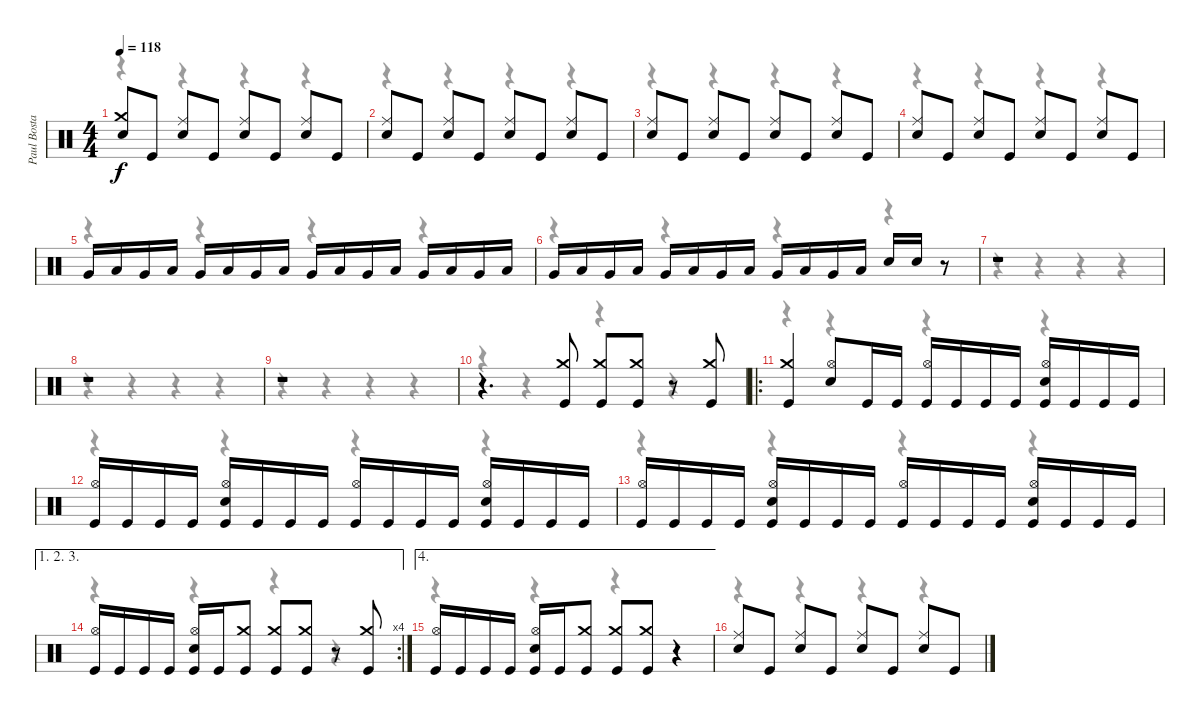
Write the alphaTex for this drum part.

\track ("Paul Bostaph" "Paul Bosta") {instrument percussion}
\staff {score}
\articulation defaults
\voice
\ts (4 4)
\tempo 118
\clef neutral
\ks c
("Crash medium (hit)" "Snare (hit) 2").8{dy f} "Kick (hit)".8 ("Ride (middle)" "Snare (hit) 2").8 "Kick (hit)".8 ("Ride (middle)" "Snare (hit) 2").8 "Kick (hit)".8 ("Ride (middle)" "Snare (hit) 2").8 "Kick (hit)".8 |
("Ride (middle)" "Snare (hit) 2").8 "Kick (hit)".8 ("Ride (middle)" "Snare (hit) 2").8 "Kick (hit)".8 ("Ride (middle)" "Snare (hit) 2").8 "Kick (hit)".8 ("Ride (middle)" "Snare (hit) 2").8 "Kick (hit)".8 |
("Ride (middle)" "Snare (hit) 2").8 "Kick (hit)".8 ("Ride (middle)" "Snare (hit) 2").8 "Kick (hit)".8 ("Ride (middle)" "Snare (hit) 2").8 "Kick (hit)".8 ("Ride (middle)" "Snare (hit) 2").8 "Kick (hit)".8 |
("Ride (middle)" "Snare (hit) 2").8 "Kick (hit)".8 ("Ride (middle)" "Snare (hit) 2").8 "Kick (hit)".8 ("Ride (middle)" "Snare (hit) 2").8 "Kick (hit)".8 ("Ride (middle)" "Snare (hit) 2").8 "Kick (hit)".8 |
"Very Low Tom (hit)".16 "Low Floor Tom (hit)".16 "Very Low Tom (hit)".16 "Low Floor Tom (hit)".16 "Very Low Tom (hit)".16 "Low Floor Tom (hit)".16 "Very Low Tom (hit)".16 "Low Floor Tom (hit)".16 "Very Low Tom (hit)".16 "Low Floor Tom (hit)".16 "Very Low Tom (hit)".16 "Low Floor Tom (hit)".16 "Very Low Tom (hit)".16 "Low Floor Tom (hit)".16 "Very Low Tom (hit)".16 "Low Floor Tom (hit)".16 |
"Very Low Tom (hit)".16 "Low Floor Tom (hit)".16 "Very Low Tom (hit)".16 "Low Floor Tom (hit)".16 "Very Low Tom (hit)".16 "Low Floor Tom (hit)".16 "Very Low Tom (hit)".16 "Low Floor Tom (hit)".16 "Very Low Tom (hit)".16 "Low Floor Tom (hit)".16 "Very Low Tom (hit)".16 "Low Floor Tom (hit)".16 "Snare (hit) 2".16 "Snare (hit) 2".16 r.8 |
r.1 |
r.1 |
r.1 |
r.4{d} ("Crash medium (hit)" "Kick (hit)").8 ("Crash medium (hit)" "Kick (hit)").8 ("Crash medium (hit)" "Kick (hit)").8 r.8 ("Crash medium (hit)" "Kick (hit)").8 |
\ro
("Crash medium (hit)" "Kick (hit)").4 ("Hi-Hat (open)" "Snare (hit) 2").8 "Kick (hit)".16 "Kick (hit)".16 ("Hi-Hat (open)" "Kick (hit)").16 "Kick (hit)".16 "Kick (hit)".16 "Kick (hit)".16 ("Hi-Hat (open)" "Snare (hit) 2" "Kick (hit)").16 "Kick (hit)".16 "Kick (hit)".16 "Kick (hit)".16 |
("Hi-Hat (open)" "Kick (hit)").16 "Kick (hit)".16 "Kick (hit)".16 "Kick (hit)".16 ("Hi-Hat (open)" "Snare (hit) 2" "Kick (hit)").16 "Kick (hit)".16 "Kick (hit)".16 "Kick (hit)".16 ("Hi-Hat (open)" "Kick (hit)").16 "Kick (hit)".16 "Kick (hit)".16 "Kick (hit)".16 ("Hi-Hat (open)" "Snare (hit) 2" "Kick (hit)").16 "Kick (hit)".16 "Kick (hit)".16 "Kick (hit)".16 |
("Hi-Hat (open)" "Kick (hit)").16 "Kick (hit)".16 "Kick (hit)".16 "Kick (hit)".16 ("Hi-Hat (open)" "Snare (hit) 2" "Kick (hit)").16 "Kick (hit)".16 "Kick (hit)".16 "Kick (hit)".16 ("Hi-Hat (open)" "Kick (hit)").16 "Kick (hit)".16 "Kick (hit)".16 "Kick (hit)".16 ("Hi-Hat (open)" "Snare (hit) 2" "Kick (hit)").16 "Kick (hit)".16 "Kick (hit)".16 "Kick (hit)".16 |
\ae (1 2 3)
\rc 4
("Hi-Hat (open)" "Kick (hit)").16 "Kick (hit)".16 "Kick (hit)".16 "Kick (hit)".16 ("Hi-Hat (open)" "Snare (hit) 2" "Kick (hit)").16 "Kick (hit)".16 ("Crash medium (hit)" "Kick (hit)").8 ("Crash medium (hit)" "Kick (hit)").8 ("Crash medium (hit)" "Kick (hit)").8 r.8 ("Crash medium (hit)" "Kick (hit)").8 |
\ae 4
("Hi-Hat (open)" "Kick (hit)").16 "Kick (hit)".16 "Kick (hit)".16 "Kick (hit)".16 ("Hi-Hat (open)" "Snare (hit) 2" "Kick (hit)").16 "Kick (hit)".16 ("Crash medium (hit)" "Kick (hit)").8 ("Crash medium (hit)" "Kick (hit)").8 ("Crash medium (hit)" "Kick (hit)").8 r.4 |
("Ride (middle)" "Snare (hit) 2").8 "Kick (hit)".8 ("Ride (middle)" "Snare (hit) 2").8 "Kick (hit)".8 ("Ride (middle)" "Snare (hit) 2").8 "Kick (hit)".8 ("Ride (middle)" "Snare (hit) 2").8 "Kick (hit)".8
\voice
\clef neutral
\ottava regular
\simile none
\ks c
r.4{dy f} r.4 r.4 r.4 |
r.4 r.4 r.4 r.4 |
r.4 r.4 r.4 r.4 |
r.4 r.4 r.4 r.4 |
r.4 r.4 r.4 r.4 |
r.4 r.4 r.4 r.4 |
r.4 r.4 r.4 r.4 |
r.4 r.4 r.4 r.4 |
r.4 r.4 r.4 r.4 |
r.4 r.4 r.4 r.4 |
r.4 r.4 r.4 r.4 |
r.4 r.4 r.4 r.4 |
r.4 r.4 r.4 r.4 |
r.4 r.4 r.4 r.4 |
r.4 r.4 r.4 r.4 |
r.4 r.4 r.4 r.4
